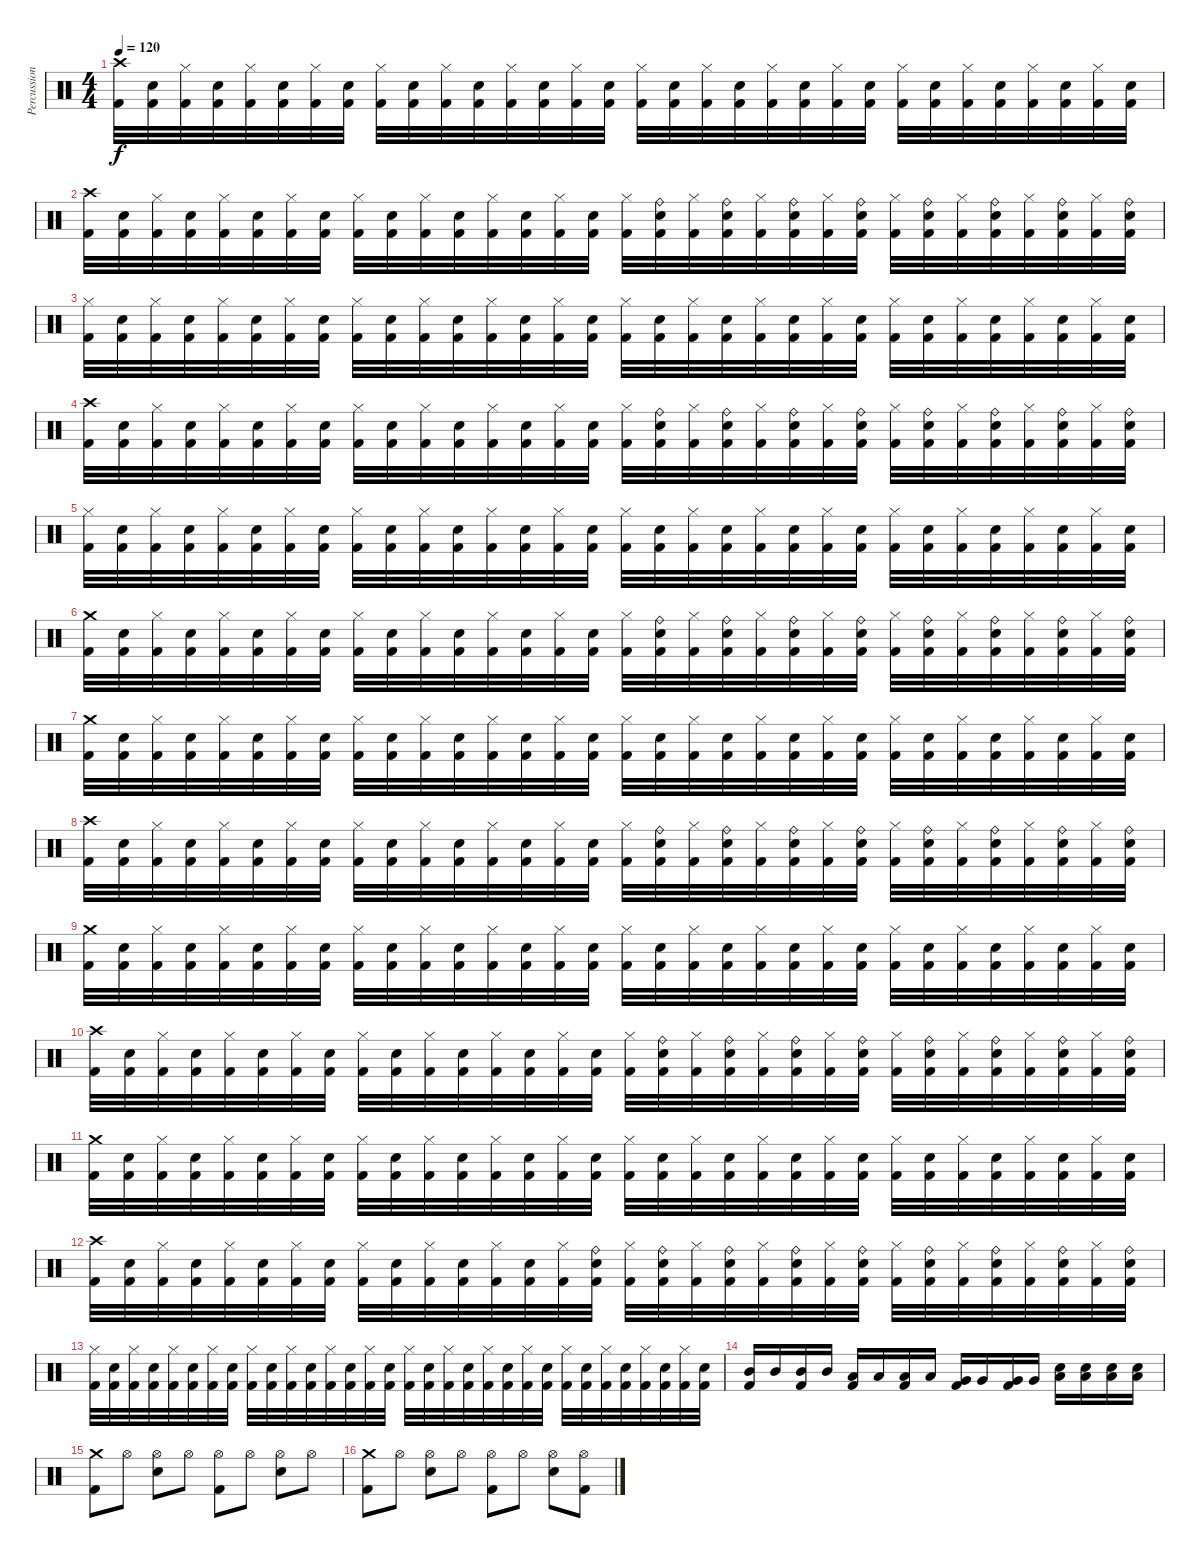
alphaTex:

\track ("Percussion" "Percussion") {instrument percussion}
\staff {score}
\articulation defaults
\ts (4 4)
\tempo 120
\clef neutral
\ks c
("Crash high (hit)" "Kick (hit) 2").32{dy f} ("Snare (hit) 2" "Kick (hit) 2").32 ("Hi-Hat (closed)" "Kick (hit) 2").32 ("Snare (hit) 2" "Kick (hit) 2").32 ("Hi-Hat (closed)" "Kick (hit) 2").32 ("Snare (hit) 2" "Kick (hit) 2").32 ("Hi-Hat (closed)" "Kick (hit) 2").32 ("Snare (hit) 2" "Kick (hit) 2").32 ("Hi-Hat (closed)" "Kick (hit) 2").32 ("Snare (hit) 2" "Kick (hit) 2").32 ("Hi-Hat (closed)" "Kick (hit) 2").32 ("Snare (hit) 2" "Kick (hit) 2").32 ("Hi-Hat (closed)" "Kick (hit) 2").32 ("Snare (hit) 2" "Kick (hit) 2").32 ("Hi-Hat (closed)" "Kick (hit) 2").32 ("Snare (hit) 2" "Kick (hit) 2").32 ("Hi-Hat (closed)" "Kick (hit) 2").32 ("Snare (hit) 2" "Kick (hit) 2").32 ("Hi-Hat (closed)" "Kick (hit) 2").32 ("Snare (hit) 2" "Kick (hit) 2").32 ("Hi-Hat (closed)" "Kick (hit) 2").32 ("Snare (hit) 2" "Kick (hit) 2").32 ("Hi-Hat (closed)" "Kick (hit) 2").32 ("Snare (hit) 2" "Kick (hit) 2").32 ("Hi-Hat (closed)" "Kick (hit) 2").32 ("Snare (hit) 2" "Kick (hit) 2").32 ("Hi-Hat (closed)" "Kick (hit) 2").32 ("Snare (hit) 2" "Kick (hit) 2").32 ("Hi-Hat (closed)" "Kick (hit) 2").32 ("Snare (hit) 2" "Kick (hit) 2").32 ("Hi-Hat (closed)" "Kick (hit) 2").32 ("Snare (hit) 2" "Kick (hit) 2").32 |
("Crash high (hit)" "Kick (hit) 2").32 ("Snare (hit) 2" "Kick (hit) 2").32 ("Hi-Hat (closed)" "Kick (hit) 2").32 ("Snare (hit) 2" "Kick (hit) 2").32 ("Hi-Hat (closed)" "Kick (hit) 2").32 ("Snare (hit) 2" "Kick (hit) 2").32 ("Hi-Hat (closed)" "Kick (hit) 2").32 ("Snare (hit) 2" "Kick (hit) 2").32 ("Hi-Hat (closed)" "Kick (hit) 2").32 ("Snare (hit) 2" "Kick (hit) 2").32 ("Hi-Hat (closed)" "Kick (hit) 2").32 ("Snare (hit) 2" "Kick (hit) 2").32 ("Hi-Hat (closed)" "Kick (hit) 2").32 ("Snare (hit) 2" "Kick (hit) 2").32 ("Hi-Hat (closed)" "Kick (hit) 2").32 ("Snare (hit) 2" "Kick (hit) 2").32 ("Hi-Hat (closed)" "Kick (hit) 2").32 ("Snare (hit) 2" "Ride (bell)" "Kick (hit) 2").32 ("Hi-Hat (closed)" "Kick (hit) 2").32 ("Snare (hit) 2" "Ride (bell)" "Kick (hit) 2").32 ("Hi-Hat (closed)" "Kick (hit) 2").32 ("Snare (hit) 2" "Ride (bell)" "Kick (hit) 2").32 ("Hi-Hat (closed)" "Kick (hit) 2").32 ("Snare (hit) 2" "Ride (bell)" "Kick (hit) 2").32 ("Hi-Hat (closed)" "Kick (hit) 2").32 ("Snare (hit) 2" "Ride (bell)" "Kick (hit) 2").32 ("Hi-Hat (closed)" "Kick (hit) 2").32 ("Snare (hit) 2" "Ride (bell)" "Kick (hit) 2").32 ("Hi-Hat (closed)" "Kick (hit) 2").32 ("Snare (hit) 2" "Ride (bell)" "Kick (hit) 2").32 ("Hi-Hat (closed)" "Kick (hit) 2").32 ("Snare (hit) 2" "Ride (bell)" "Kick (hit) 2").32 |
("Hi-Hat (closed)" "Kick (hit) 2").32 ("Snare (hit) 2" "Kick (hit) 2").32 ("Hi-Hat (closed)" "Kick (hit) 2").32 ("Snare (hit) 2" "Kick (hit) 2").32 ("Hi-Hat (closed)" "Kick (hit) 2").32 ("Snare (hit) 2" "Kick (hit) 2").32 ("Hi-Hat (closed)" "Kick (hit) 2").32 ("Snare (hit) 2" "Kick (hit) 2").32 ("Hi-Hat (closed)" "Kick (hit) 2").32 ("Snare (hit) 2" "Kick (hit) 2").32 ("Hi-Hat (closed)" "Kick (hit) 2").32 ("Snare (hit) 2" "Kick (hit) 2").32 ("Hi-Hat (closed)" "Kick (hit) 2").32 ("Snare (hit) 2" "Kick (hit) 2").32 ("Hi-Hat (closed)" "Kick (hit) 2").32 ("Snare (hit) 2" "Kick (hit) 2").32 ("Hi-Hat (closed)" "Kick (hit) 2").32 ("Snare (hit) 2" "Kick (hit) 2").32 ("Hi-Hat (closed)" "Kick (hit) 2").32 ("Snare (hit) 2" "Kick (hit) 2").32 ("Hi-Hat (closed)" "Kick (hit) 2").32 ("Snare (hit) 2" "Kick (hit) 2").32 ("Hi-Hat (closed)" "Kick (hit) 2").32 ("Snare (hit) 2" "Kick (hit) 2").32 ("Hi-Hat (closed)" "Kick (hit) 2").32 ("Snare (hit) 2" "Kick (hit) 2").32 ("Hi-Hat (closed)" "Kick (hit) 2").32 ("Snare (hit) 2" "Kick (hit) 2").32 ("Hi-Hat (closed)" "Kick (hit) 2").32 ("Snare (hit) 2" "Kick (hit) 2").32 ("Hi-Hat (closed)" "Kick (hit) 2").32 ("Snare (hit) 2" "Kick (hit) 2").32 |
("Crash high (hit)" "Kick (hit) 2").32 ("Snare (hit) 2" "Kick (hit) 2").32 ("Hi-Hat (closed)" "Kick (hit) 2").32 ("Snare (hit) 2" "Kick (hit) 2").32 ("Hi-Hat (closed)" "Kick (hit) 2").32 ("Snare (hit) 2" "Kick (hit) 2").32 ("Hi-Hat (closed)" "Kick (hit) 2").32 ("Snare (hit) 2" "Kick (hit) 2").32 ("Hi-Hat (closed)" "Kick (hit) 2").32 ("Snare (hit) 2" "Kick (hit) 2").32 ("Hi-Hat (closed)" "Kick (hit) 2").32 ("Snare (hit) 2" "Kick (hit) 2").32 ("Hi-Hat (closed)" "Kick (hit) 2").32 ("Snare (hit) 2" "Kick (hit) 2").32 ("Hi-Hat (closed)" "Kick (hit) 2").32 ("Snare (hit) 2" "Kick (hit) 2").32 ("Hi-Hat (closed)" "Kick (hit) 2").32 ("Snare (hit) 2" "Ride (bell)" "Kick (hit) 2").32 ("Hi-Hat (closed)" "Kick (hit) 2").32 ("Snare (hit) 2" "Ride (bell)" "Kick (hit) 2").32 ("Hi-Hat (closed)" "Kick (hit) 2").32 ("Snare (hit) 2" "Ride (bell)" "Kick (hit) 2").32 ("Hi-Hat (closed)" "Kick (hit) 2").32 ("Snare (hit) 2" "Ride (bell)" "Kick (hit) 2").32 ("Hi-Hat (closed)" "Kick (hit) 2").32 ("Snare (hit) 2" "Ride (bell)" "Kick (hit) 2").32 ("Hi-Hat (closed)" "Kick (hit) 2").32 ("Snare (hit) 2" "Ride (bell)" "Kick (hit) 2").32 ("Hi-Hat (closed)" "Kick (hit) 2").32 ("Snare (hit) 2" "Ride (bell)" "Kick (hit) 2").32 ("Hi-Hat (closed)" "Kick (hit) 2").32 ("Snare (hit) 2" "Ride (bell)" "Kick (hit) 2").32 |
("Hi-Hat (closed)" "Kick (hit) 2").32 ("Snare (hit) 2" "Kick (hit) 2").32 ("Hi-Hat (closed)" "Kick (hit) 2").32 ("Snare (hit) 2" "Kick (hit) 2").32 ("Hi-Hat (closed)" "Kick (hit) 2").32 ("Snare (hit) 2" "Kick (hit) 2").32 ("Hi-Hat (closed)" "Kick (hit) 2").32 ("Snare (hit) 2" "Kick (hit) 2").32 ("Hi-Hat (closed)" "Kick (hit) 2").32 ("Snare (hit) 2" "Kick (hit) 2").32 ("Hi-Hat (closed)" "Kick (hit) 2").32 ("Snare (hit) 2" "Kick (hit) 2").32 ("Hi-Hat (closed)" "Kick (hit) 2").32 ("Snare (hit) 2" "Kick (hit) 2").32 ("Hi-Hat (closed)" "Kick (hit) 2").32 ("Snare (hit) 2" "Kick (hit) 2").32 ("Hi-Hat (closed)" "Kick (hit) 2").32 ("Snare (hit) 2" "Kick (hit) 2").32 ("Hi-Hat (closed)" "Kick (hit) 2").32 ("Snare (hit) 2" "Kick (hit) 2").32 ("Hi-Hat (closed)" "Kick (hit) 2").32 ("Snare (hit) 2" "Kick (hit) 2").32 ("Hi-Hat (closed)" "Kick (hit) 2").32 ("Snare (hit) 2" "Kick (hit) 2").32 ("Hi-Hat (closed)" "Kick (hit) 2").32 ("Snare (hit) 2" "Kick (hit) 2").32 ("Hi-Hat (closed)" "Kick (hit) 2").32 ("Snare (hit) 2" "Kick (hit) 2").32 ("Hi-Hat (closed)" "Kick (hit) 2").32 ("Snare (hit) 2" "Kick (hit) 2").32 ("Hi-Hat (closed)" "Kick (hit) 2").32 ("Snare (hit) 2" "Kick (hit) 2").32 |
("Crash medium (hit)" "Kick (hit) 2").32 ("Snare (hit) 2" "Kick (hit) 2").32 ("Hi-Hat (closed)" "Kick (hit) 2").32 ("Snare (hit) 2" "Kick (hit) 2").32 ("Hi-Hat (closed)" "Kick (hit) 2").32 ("Snare (hit) 2" "Kick (hit) 2").32 ("Hi-Hat (closed)" "Kick (hit) 2").32 ("Snare (hit) 2" "Kick (hit) 2").32 ("Hi-Hat (closed)" "Kick (hit) 2").32 ("Snare (hit) 2" "Kick (hit) 2").32 ("Hi-Hat (closed)" "Kick (hit) 2").32 ("Snare (hit) 2" "Kick (hit) 2").32 ("Hi-Hat (closed)" "Kick (hit) 2").32 ("Snare (hit) 2" "Kick (hit) 2").32 ("Hi-Hat (closed)" "Kick (hit) 2").32 ("Snare (hit) 2" "Kick (hit) 2").32 ("Hi-Hat (closed)" "Kick (hit) 2").32 ("Snare (hit) 2" "Ride (bell)" "Kick (hit) 2").32 ("Hi-Hat (closed)" "Kick (hit) 2").32 ("Snare (hit) 2" "Ride (bell)" "Kick (hit) 2").32 ("Hi-Hat (closed)" "Kick (hit) 2").32 ("Snare (hit) 2" "Ride (bell)" "Kick (hit) 2").32 ("Hi-Hat (closed)" "Kick (hit) 2").32 ("Snare (hit) 2" "Ride (bell)" "Kick (hit) 2").32 ("Hi-Hat (closed)" "Kick (hit) 2").32 ("Snare (hit) 2" "Ride (bell)" "Kick (hit) 2").32 ("Hi-Hat (closed)" "Kick (hit) 2").32 ("Snare (hit) 2" "Ride (bell)" "Kick (hit) 2").32 ("Hi-Hat (closed)" "Kick (hit) 2").32 ("Snare (hit) 2" "Ride (bell)" "Kick (hit) 2").32 ("Hi-Hat (closed)" "Kick (hit) 2").32 ("Snare (hit) 2" "Ride (bell)" "Kick (hit) 2").32 |
("Crash medium (hit)" "Kick (hit) 2").32 ("Snare (hit) 2" "Kick (hit) 2").32 ("Hi-Hat (closed)" "Kick (hit) 2").32 ("Snare (hit) 2" "Kick (hit) 2").32 ("Hi-Hat (closed)" "Kick (hit) 2").32 ("Snare (hit) 2" "Kick (hit) 2").32 ("Hi-Hat (closed)" "Kick (hit) 2").32 ("Snare (hit) 2" "Kick (hit) 2").32 ("Hi-Hat (closed)" "Kick (hit) 2").32 ("Snare (hit) 2" "Kick (hit) 2").32 ("Hi-Hat (closed)" "Kick (hit) 2").32 ("Snare (hit) 2" "Kick (hit) 2").32 ("Hi-Hat (closed)" "Kick (hit) 2").32 ("Snare (hit) 2" "Kick (hit) 2").32 ("Hi-Hat (closed)" "Kick (hit) 2").32 ("Snare (hit) 2" "Kick (hit) 2").32 ("Hi-Hat (closed)" "Kick (hit) 2").32 ("Snare (hit) 2" "Kick (hit) 2").32 ("Hi-Hat (closed)" "Kick (hit) 2").32 ("Snare (hit) 2" "Kick (hit) 2").32 ("Hi-Hat (closed)" "Kick (hit) 2").32 ("Snare (hit) 2" "Kick (hit) 2").32 ("Hi-Hat (closed)" "Kick (hit) 2").32 ("Snare (hit) 2" "Kick (hit) 2").32 ("Hi-Hat (closed)" "Kick (hit) 2").32 ("Snare (hit) 2" "Kick (hit) 2").32 ("Hi-Hat (closed)" "Kick (hit) 2").32 ("Snare (hit) 2" "Kick (hit) 2").32 ("Hi-Hat (closed)" "Kick (hit) 2").32 ("Snare (hit) 2" "Kick (hit) 2").32 ("Hi-Hat (closed)" "Kick (hit) 2").32 ("Snare (hit) 2" "Kick (hit) 2").32 |
("Crash high (hit)" "Kick (hit) 2").32 ("Snare (hit) 2" "Kick (hit) 2").32 ("Hi-Hat (closed)" "Kick (hit) 2").32 ("Snare (hit) 2" "Kick (hit) 2").32 ("Hi-Hat (closed)" "Kick (hit) 2").32 ("Snare (hit) 2" "Kick (hit) 2").32 ("Hi-Hat (closed)" "Kick (hit) 2").32 ("Snare (hit) 2" "Kick (hit) 2").32 ("Hi-Hat (closed)" "Kick (hit) 2").32 ("Snare (hit) 2" "Kick (hit) 2").32 ("Hi-Hat (closed)" "Kick (hit) 2").32 ("Snare (hit) 2" "Kick (hit) 2").32 ("Hi-Hat (closed)" "Kick (hit) 2").32 ("Snare (hit) 2" "Kick (hit) 2").32 ("Hi-Hat (closed)" "Kick (hit) 2").32 ("Snare (hit) 2" "Kick (hit) 2").32 ("Hi-Hat (closed)" "Kick (hit) 2").32 ("Snare (hit) 2" "Ride (bell)" "Kick (hit) 2").32 ("Hi-Hat (closed)" "Kick (hit) 2").32 ("Snare (hit) 2" "Ride (bell)" "Kick (hit) 2").32 ("Hi-Hat (closed)" "Kick (hit) 2").32 ("Snare (hit) 2" "Ride (bell)" "Kick (hit) 2").32 ("Hi-Hat (closed)" "Kick (hit) 2").32 ("Snare (hit) 2" "Ride (bell)" "Kick (hit) 2").32 ("Hi-Hat (closed)" "Kick (hit) 2").32 ("Snare (hit) 2" "Ride (bell)" "Kick (hit) 2").32 ("Hi-Hat (closed)" "Kick (hit) 2").32 ("Snare (hit) 2" "Ride (bell)" "Kick (hit) 2").32 ("Hi-Hat (closed)" "Kick (hit) 2").32 ("Snare (hit) 2" "Ride (bell)" "Kick (hit) 2").32 ("Hi-Hat (closed)" "Kick (hit) 2").32 ("Snare (hit) 2" "Ride (bell)" "Kick (hit) 2").32 |
("Crash medium (hit)" "Kick (hit) 2").32 ("Snare (hit) 2" "Kick (hit) 2").32 ("Hi-Hat (closed)" "Kick (hit) 2").32 ("Snare (hit) 2" "Kick (hit) 2").32 ("Hi-Hat (closed)" "Kick (hit) 2").32 ("Snare (hit) 2" "Kick (hit) 2").32 ("Hi-Hat (closed)" "Kick (hit) 2").32 ("Snare (hit) 2" "Kick (hit) 2").32 ("Hi-Hat (closed)" "Kick (hit) 2").32 ("Snare (hit) 2" "Kick (hit) 2").32 ("Hi-Hat (closed)" "Kick (hit) 2").32 ("Snare (hit) 2" "Kick (hit) 2").32 ("Hi-Hat (closed)" "Kick (hit) 2").32 ("Snare (hit) 2" "Kick (hit) 2").32 ("Hi-Hat (closed)" "Kick (hit) 2").32 ("Snare (hit) 2" "Kick (hit) 2").32 ("Hi-Hat (closed)" "Kick (hit) 2").32 ("Snare (hit) 2" "Kick (hit) 2").32 ("Hi-Hat (closed)" "Kick (hit) 2").32 ("Snare (hit) 2" "Kick (hit) 2").32 ("Hi-Hat (closed)" "Kick (hit) 2").32 ("Snare (hit) 2" "Kick (hit) 2").32 ("Hi-Hat (closed)" "Kick (hit) 2").32 ("Snare (hit) 2" "Kick (hit) 2").32 ("Hi-Hat (closed)" "Kick (hit) 2").32 ("Snare (hit) 2" "Kick (hit) 2").32 ("Hi-Hat (closed)" "Kick (hit) 2").32 ("Snare (hit) 2" "Kick (hit) 2").32 ("Hi-Hat (closed)" "Kick (hit) 2").32 ("Snare (hit) 2" "Kick (hit) 2").32 ("Hi-Hat (closed)" "Kick (hit) 2").32 ("Snare (hit) 2" "Kick (hit) 2").32 |
("Crash high (hit)" "Kick (hit) 2").32 ("Snare (hit) 2" "Kick (hit) 2").32 ("Hi-Hat (closed)" "Kick (hit) 2").32 ("Snare (hit) 2" "Kick (hit) 2").32 ("Hi-Hat (closed)" "Kick (hit) 2").32 ("Snare (hit) 2" "Kick (hit) 2").32 ("Hi-Hat (closed)" "Kick (hit) 2").32 ("Snare (hit) 2" "Kick (hit) 2").32 ("Hi-Hat (closed)" "Kick (hit) 2").32 ("Snare (hit) 2" "Kick (hit) 2").32 ("Hi-Hat (closed)" "Kick (hit) 2").32 ("Snare (hit) 2" "Kick (hit) 2").32 ("Hi-Hat (closed)" "Kick (hit) 2").32 ("Snare (hit) 2" "Kick (hit) 2").32 ("Hi-Hat (closed)" "Kick (hit) 2").32 ("Snare (hit) 2" "Kick (hit) 2").32 ("Hi-Hat (closed)" "Kick (hit) 2").32 ("Snare (hit) 2" "Ride (bell)" "Kick (hit) 2").32 ("Hi-Hat (closed)" "Kick (hit) 2").32 ("Snare (hit) 2" "Ride (bell)" "Kick (hit) 2").32 ("Hi-Hat (closed)" "Kick (hit) 2").32 ("Snare (hit) 2" "Ride (bell)" "Kick (hit) 2").32 ("Hi-Hat (closed)" "Kick (hit) 2").32 ("Snare (hit) 2" "Ride (bell)" "Kick (hit) 2").32 ("Hi-Hat (closed)" "Kick (hit) 2").32 ("Snare (hit) 2" "Ride (bell)" "Kick (hit) 2").32 ("Hi-Hat (closed)" "Kick (hit) 2").32 ("Snare (hit) 2" "Ride (bell)" "Kick (hit) 2").32 ("Hi-Hat (closed)" "Kick (hit) 2").32 ("Snare (hit) 2" "Ride (bell)" "Kick (hit) 2").32 ("Hi-Hat (closed)" "Kick (hit) 2").32 ("Snare (hit) 2" "Ride (bell)" "Kick (hit) 2").32 |
("Crash medium (hit)" "Kick (hit) 2").32 ("Snare (hit) 2" "Kick (hit) 2").32 ("Hi-Hat (closed)" "Kick (hit) 2").32 ("Snare (hit) 2" "Kick (hit) 2").32 ("Hi-Hat (closed)" "Kick (hit) 2").32 ("Snare (hit) 2" "Kick (hit) 2").32 ("Hi-Hat (closed)" "Kick (hit) 2").32 ("Snare (hit) 2" "Kick (hit) 2").32 ("Hi-Hat (closed)" "Kick (hit) 2").32 ("Snare (hit) 2" "Kick (hit) 2").32 ("Hi-Hat (closed)" "Kick (hit) 2").32 ("Snare (hit) 2" "Kick (hit) 2").32 ("Hi-Hat (closed)" "Kick (hit) 2").32 ("Snare (hit) 2" "Kick (hit) 2").32 ("Hi-Hat (closed)" "Kick (hit) 2").32 ("Snare (hit) 2" "Kick (hit) 2").32 ("Hi-Hat (closed)" "Kick (hit) 2").32 ("Snare (hit) 2" "Kick (hit) 2").32 ("Hi-Hat (closed)" "Kick (hit) 2").32 ("Snare (hit) 2" "Kick (hit) 2").32 ("Hi-Hat (closed)" "Kick (hit) 2").32 ("Snare (hit) 2" "Kick (hit) 2").32 ("Hi-Hat (closed)" "Kick (hit) 2").32 ("Snare (hit) 2" "Kick (hit) 2").32 ("Hi-Hat (closed)" "Kick (hit) 2").32 ("Snare (hit) 2" "Kick (hit) 2").32 ("Hi-Hat (closed)" "Kick (hit) 2").32 ("Snare (hit) 2" "Kick (hit) 2").32 ("Hi-Hat (closed)" "Kick (hit) 2").32 ("Snare (hit) 2" "Kick (hit) 2").32 ("Hi-Hat (closed)" "Kick (hit) 2").32 ("Snare (hit) 2" "Kick (hit) 2").32 |
("Crash high (hit)" "Kick (hit) 2").32 ("Snare (hit) 2" "Kick (hit) 2").32 ("Hi-Hat (closed)" "Kick (hit) 2").32 ("Snare (hit) 2" "Kick (hit) 2").32 ("Hi-Hat (closed)" "Kick (hit) 2").32 ("Snare (hit) 2" "Kick (hit) 2").32 ("Hi-Hat (closed)" "Kick (hit) 2").32 ("Snare (hit) 2" "Kick (hit) 2").32 ("Hi-Hat (closed)" "Kick (hit) 2").32 ("Snare (hit) 2" "Kick (hit) 2").32 ("Hi-Hat (closed)" "Kick (hit) 2").32 ("Snare (hit) 2" "Kick (hit) 2").32 ("Hi-Hat (closed)" "Kick (hit) 2").32 ("Snare (hit) 2" "Kick (hit) 2").32 ("Hi-Hat (closed)" "Kick (hit) 2").32 ("Snare (hit) 2" "Ride (bell)" "Kick (hit) 2").32 ("Hi-Hat (closed)" "Kick (hit) 2").32 ("Snare (hit) 2" "Ride (bell)" "Kick (hit) 2").32 ("Hi-Hat (closed)" "Kick (hit) 2").32 ("Snare (hit) 2" "Ride (bell)" "Kick (hit) 2").32 ("Hi-Hat (closed)" "Kick (hit) 2").32 ("Snare (hit) 2" "Ride (bell)" "Kick (hit) 2").32 ("Hi-Hat (closed)" "Kick (hit) 2").32 ("Snare (hit) 2" "Ride (bell)" "Kick (hit) 2").32 ("Hi-Hat (closed)" "Kick (hit) 2").32 ("Snare (hit) 2" "Ride (bell)" "Kick (hit) 2").32 ("Hi-Hat (closed)" "Kick (hit) 2").32 ("Snare (hit) 2" "Ride (bell)" "Kick (hit) 2").32 ("Hi-Hat (closed)" "Kick (hit) 2").32 ("Snare (hit) 2" "Ride (bell)" "Kick (hit) 2").32 ("Hi-Hat (closed)" "Kick (hit) 2").32 ("Snare (hit) 2" "Ride (bell)" "Kick (hit) 2").32 |
("Hi-Hat (closed)" "Kick (hit) 2").32 ("Snare (hit) 2" "Kick (hit) 2").32 ("Hi-Hat (closed)" "Kick (hit) 2").32 ("Snare (hit) 2" "Kick (hit) 2").32 ("Hi-Hat (closed)" "Kick (hit) 2").32 ("Snare (hit) 2" "Kick (hit) 2").32 ("Hi-Hat (closed)" "Kick (hit) 2").32 ("Snare (hit) 2" "Kick (hit) 2").32 ("Hi-Hat (closed)" "Kick (hit) 2").32 ("Snare (hit) 2" "Kick (hit) 2").32 ("Hi-Hat (closed)" "Kick (hit) 2").32 ("Snare (hit) 2" "Kick (hit) 2").32 ("Hi-Hat (closed)" "Kick (hit) 2").32 ("Snare (hit) 2" "Kick (hit) 2").32 ("Hi-Hat (closed)" "Kick (hit) 2").32 ("Snare (hit) 2" "Kick (hit) 2").32 ("Hi-Hat (closed)" "Kick (hit) 2").32 ("Snare (hit) 2" "Kick (hit) 2").32 ("Hi-Hat (closed)" "Kick (hit) 2").32 ("Snare (hit) 2" "Kick (hit) 2").32 ("Hi-Hat (closed)" "Kick (hit) 2").32 ("Snare (hit) 2" "Kick (hit) 2").32 ("Hi-Hat (closed)" "Kick (hit) 2").32 ("Snare (hit) 2" "Kick (hit) 2").32 ("Hi-Hat (closed)" "Kick (hit) 2").32 ("Snare (hit) 2" "Kick (hit) 2").32 ("Hi-Hat (closed)" "Kick (hit) 2").32 ("Snare (hit) 2" "Kick (hit) 2").32 ("Hi-Hat (closed)" "Kick (hit) 2").32 ("Snare (hit) 2" "Kick (hit) 2").32 ("Hi-Hat (closed)" "Kick (hit) 2").32 ("Snare (hit) 2" "Kick (hit) 2").32 |
("Mid Tom (hit)" "Kick (hit) 2").16 "Mid Tom (hit)".16 ("Mid Tom (hit)" "Kick (hit) 2").16 "Mid Tom (hit)".16 ("Low Tom (hit)" "Kick (hit) 2").16 "Low Tom (hit)".16 ("Low Tom (hit)" "Kick (hit) 2").16 "Low Tom (hit)".16 ("Very Low Tom (hit)" "Kick (hit) 2").16 "Very Low Tom (hit)".16 ("Very Low Tom (hit)" "Kick (hit) 2").16 "Very Low Tom (hit)".16 ("Low Floor Tom (hit)" "Snare (hit) 2").16 ("Low Floor Tom (hit)" "Snare (hit) 2").16 ("Low Floor Tom (hit)" "Snare (hit) 2").16 ("Low Floor Tom (hit)" "Snare (hit) 2").16 |
("Crash medium (hit)" "Kick (hit) 2").8 "Hi-Hat (open)".8 ("Hi-Hat (open)" "Snare (hit) 2").8 "Hi-Hat (open)".8 ("Hi-Hat (open)" "Kick (hit) 2").8 "Hi-Hat (open)".8 ("Hi-Hat (open)" "Snare (hit) 2").8 "Hi-Hat (open)".8 |
("Crash medium (hit)" "Kick (hit) 2").8 "Hi-Hat (open)".8 ("Hi-Hat (open)" "Snare (hit) 2").8 "Hi-Hat (open)".8 ("Hi-Hat (open)" "Kick (hit) 2").8 "Hi-Hat (open)".8 ("Hi-Hat (open)" "Snare (hit) 2").8 ("Hi-Hat (open)" "Kick (hit) 2").8
